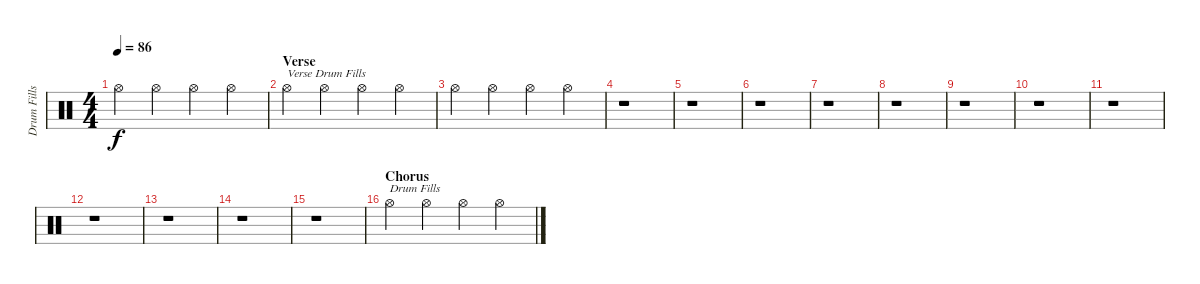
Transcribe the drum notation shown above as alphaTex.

\track ("Drum Fills" "Drum Fills") {instrument percussion}
\staff {score}
\articulation defaults
\ts (4 4)
\tempo 86
\clef neutral
\ks c "Hi-Hat (open)".4{dy f} "Hi-Hat (open)".4 "Hi-Hat (open)".4 "Hi-Hat (open)".4
|
\section ("" "Verse")
"Hi-Hat (open)".4{txt "Verse Drum Fills"} "Hi-Hat (open)".4 "Hi-Hat (open)".4 "Hi-Hat (open)".4 |
"Hi-Hat (open)".4 "Hi-Hat (open)".4 "Hi-Hat (open)".4 "Hi-Hat (open)".4 |
r.1 |
r.1 |
r.1 |
r.1 |
r.1 |
r.1 |
r.1 |
r.1 |
r.1 |
r.1 |
r.1 |
r.1 |
\section ("" "Chorus")
"Hi-Hat (open)".4{txt "Drum Fills"} "Hi-Hat (open)".4 "Hi-Hat (open)".4 "Hi-Hat (open)".4
